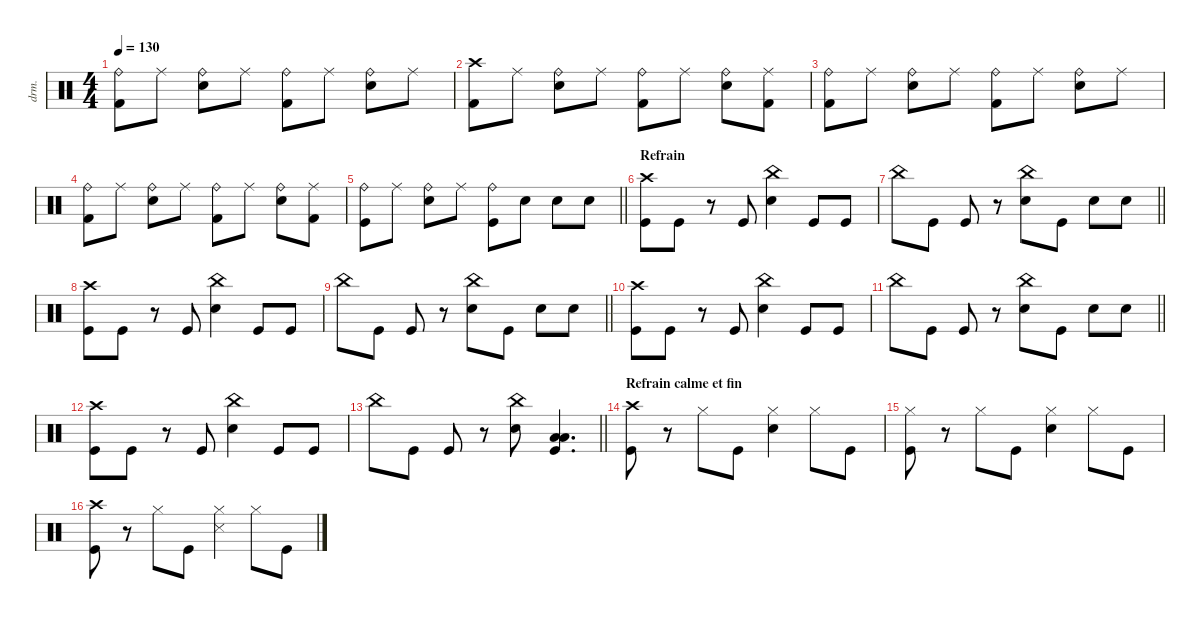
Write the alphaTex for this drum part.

\defaultSystemsLayout 4
\hideDynamics
\bracketExtendMode nobrackets
\track ("Manouche" "drm.") {instrument percussion}
\staff {score}
\articulation defaults
\ts (4 4)
\tempo 130
\clef neutral
\ks c
("Ride (bell)" "Kick (hit) 2").8{dy f} "Ride (middle)".8{dy mf} ("Ride (bell)" "Snare (hit) 2").8{dy f} "Ride (middle)".8{dy mf} ("Ride (bell)" "Kick (hit) 2").8{dy f} "Ride (middle)".8{dy mf} ("Ride (bell)" "Snare (hit) 2").8{dy f} "Ride (middle)".8{dy mf} |
("Crash high (hit)" "Kick (hit) 2").8{dy f} "Ride (middle)".8{dy mf} ("Ride (bell)" "Snare (hit) 2").8{dy f} "Ride (middle)".8{dy mf} ("Ride (bell)" "Kick (hit) 2").8{dy f} "Ride (middle)".8{dy mf} ("Ride (bell)" "Snare (hit) 2").8{dy f} ("Ride (middle)" "Kick (hit) 2").8{dy mf} |
("Ride (bell)" "Kick (hit) 2").8{dy f} "Ride (middle)".8{dy mf} ("Ride (bell)" "Snare (hit) 2").8{dy f} "Ride (middle)".8{dy mf} ("Ride (bell)" "Kick (hit) 2").8{dy f} "Ride (middle)".8{dy mf} ("Ride (bell)" "Snare (hit) 2").8{dy f} "Ride (middle)".8{dy mf} |
("Ride (bell)" "Kick (hit) 2").8{dy f} "Ride (middle)".8{dy mf} ("Ride (bell)" "Snare (hit) 2").8{dy f} "Ride (middle)".8{dy mf} ("Ride (bell)" "Kick (hit) 2").8{dy f} "Ride (middle)".8{dy mf} ("Ride (bell)" "Snare (hit) 2").8{dy f} ("Ride (middle)" "Kick (hit) 2").8{dy mf} |
\barLineRight lightlight
("Ride (bell)" "Kick (hit)").8{dy f} "Ride (middle)".8{dy mf} ("Ride (bell)" "Snare (hit) 2").8{dy f} "Ride (middle)".8{dy mf} ("Ride (bell)" "Kick (hit)").8{dy f} "Snare (hit) 2".8 "Snare (hit) 2".8 "Snare (hit) 2".8 |
\section ("" "Refrain")
("Crash high (hit)" "Kick (hit)").8 "Kick (hit)".8 r.8 "Kick (hit)".8 ("China (hit)" "Snare (hit) 2").4 "Kick (hit)".8 "Kick (hit)".8 |
\barLineRight lightlight "China (hit)".8 "Kick (hit)".8 "Kick (hit)".8
r.8 ("China (hit)" "Snare (hit) 2").8 "Kick (hit)".8 "Snare (hit) 2".8 "Snare (hit) 2".8 |
("Crash high (hit)" "Kick (hit)").8 "Kick (hit)".8 r.8 "Kick (hit)".8 ("China (hit)" "Snare (hit) 2").4 "Kick (hit)".8 "Kick (hit)".8 |
\barLineRight lightlight "China (hit)".8 "Kick (hit)".8 "Kick (hit)".8
r.8 ("China (hit)" "Snare (hit) 2").8 "Kick (hit)".8 "Snare (hit) 2".8 "Snare (hit) 2".8 |
("Crash high (hit)" "Kick (hit)").8 "Kick (hit)".8 r.8 "Kick (hit)".8 ("China (hit)" "Snare (hit) 2").4 "Kick (hit)".8 "Kick (hit)".8 |
\barLineRight lightlight "China (hit)".8 "Kick (hit)".8 "Kick (hit)".8
r.8 ("China (hit)" "Snare (hit) 2").8 "Kick (hit)".8 "Snare (hit) 2".8 "Snare (hit) 2".8 |
("Crash high (hit)" "Kick (hit)").8 "Kick (hit)".8 r.8 "Kick (hit)".8 ("China (hit)" "Snare (hit) 2").4 "Kick (hit)".8 "Kick (hit)".8 |
\barLineRight lightlight "China (hit)".8 "Kick (hit)".8 "Kick (hit)".8
r.8 ("China (hit)" "Snare (hit) 2").8 ("Low Tom (hit)" "Kick (hit)" "Low Floor Tom (hit)").4{d dy ff} |
\section ("" "Refrain calme et fin")
("Crash high (hit)" "Kick (hit)").8{dy f} r.8 "Hi-Hat (closed)".8 "Kick (hit)".8 ("Hi-Hat (closed)" "Snare (hit) 2").4 "Hi-Hat (closed)".8 "Kick (hit)".8 |
("Hi-Hat (closed)" "Kick (hit)").8 r.8 "Hi-Hat (closed)".8 "Kick (hit)".8 ("Hi-Hat (closed)" "Snare (hit) 2").4 "Hi-Hat (closed)".8 "Kick (hit)".8 |
("Crash high (hit)" "Kick (hit)").8 r.8 "Hi-Hat (closed)".8 "Kick (hit)".8 ("Hi-Hat (closed)" "Snare (side stick) 3").4 "Hi-Hat (closed)".8 "Kick (hit)".8
